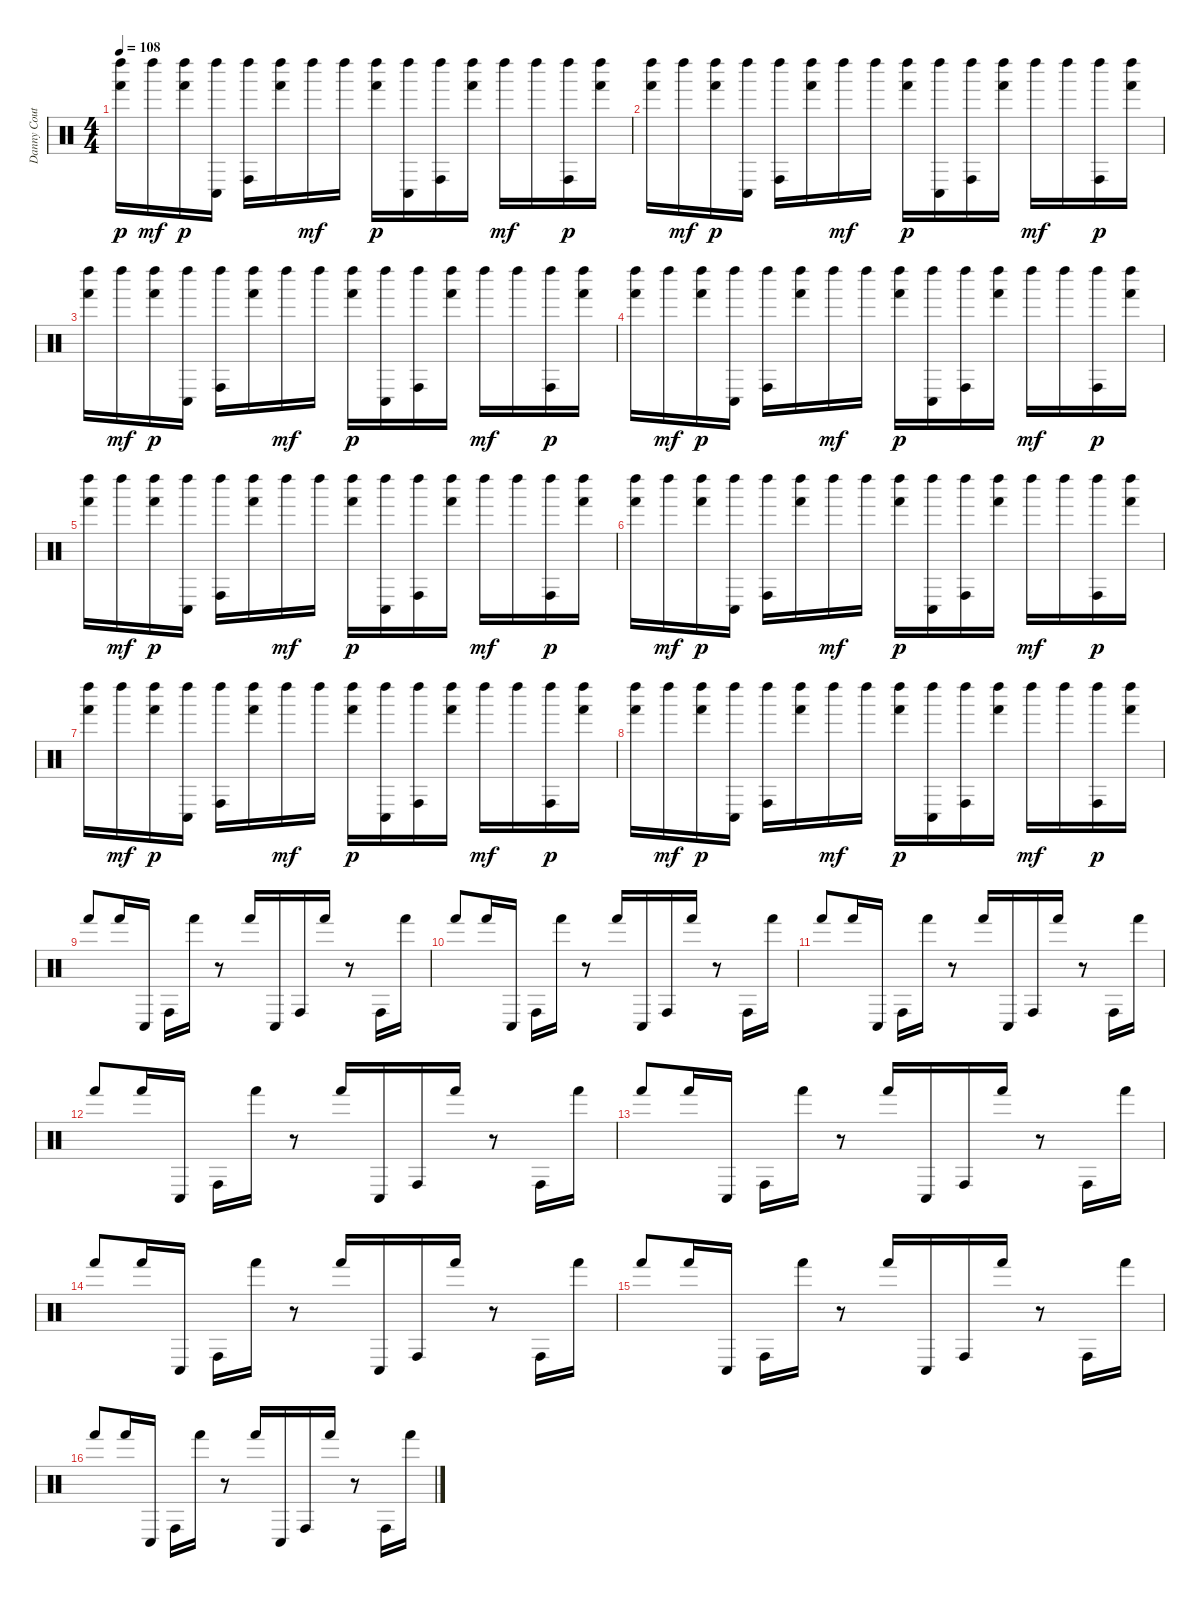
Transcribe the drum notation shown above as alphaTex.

\track ("Danny Couto [Percussion]" "Danny Cout") {instrument percussion}
\staff {score}
\articulation defaults
\ts (4 4)
\tempo 108
\clef neutral
\ks c
("Left Maraca (hit)" "Hand (hit)").16{dy p} "Left Maraca (hit)".16{dy mf} ("Left Maraca (hit)" "Hand (hit)").16{dy p} ("Left Maraca (hit)" "Conga low (hit)").16 ("Left Maraca (hit)" "Conga high (hit)").16 ("Left Maraca (hit)" "Hand (hit)").16 "Left Maraca (hit)".16{dy mf} "Left Maraca (hit)".16 ("Left Maraca (hit)" "Hand (hit)").16{dy p} ("Left Maraca (hit)" "Conga low (hit)").16 ("Left Maraca (hit)" "Conga high (hit)").16 ("Left Maraca (hit)" "Hand (hit)").16 "Left Maraca (hit)".16{dy mf} "Left Maraca (hit)".16 ("Left Maraca (hit)" "Conga high (hit)").16{dy p} ("Left Maraca (hit)" "Hand (hit)").16 |
("Left Maraca (hit)" "Hand (hit)").16 "Left Maraca (hit)".16{dy mf} ("Left Maraca (hit)" "Hand (hit)").16{dy p} ("Left Maraca (hit)" "Conga low (hit)").16 ("Left Maraca (hit)" "Conga high (hit)").16 ("Left Maraca (hit)" "Hand (hit)").16 "Left Maraca (hit)".16{dy mf} "Left Maraca (hit)".16 ("Left Maraca (hit)" "Hand (hit)").16{dy p} ("Left Maraca (hit)" "Conga low (hit)").16 ("Left Maraca (hit)" "Conga high (hit)").16 ("Left Maraca (hit)" "Hand (hit)").16 "Left Maraca (hit)".16{dy mf} "Left Maraca (hit)".16 ("Left Maraca (hit)" "Conga high (hit)").16{dy p} ("Left Maraca (hit)" "Hand (hit)").16 |
("Left Maraca (hit)" "Hand (hit)").16 "Left Maraca (hit)".16{dy mf} ("Left Maraca (hit)" "Hand (hit)").16{dy p} ("Left Maraca (hit)" "Conga low (hit)").16 ("Left Maraca (hit)" "Conga high (hit)").16 ("Left Maraca (hit)" "Hand (hit)").16 "Left Maraca (hit)".16{dy mf} "Left Maraca (hit)".16 ("Left Maraca (hit)" "Hand (hit)").16{dy p} ("Left Maraca (hit)" "Conga low (hit)").16 ("Left Maraca (hit)" "Conga high (hit)").16 ("Left Maraca (hit)" "Hand (hit)").16 "Left Maraca (hit)".16{dy mf} "Left Maraca (hit)".16 ("Left Maraca (hit)" "Conga high (hit)").16{dy p} ("Left Maraca (hit)" "Hand (hit)").16 |
("Left Maraca (hit)" "Hand (hit)").16 "Left Maraca (hit)".16{dy mf} ("Left Maraca (hit)" "Hand (hit)").16{dy p} ("Left Maraca (hit)" "Conga low (hit)").16 ("Left Maraca (hit)" "Conga high (hit)").16 ("Left Maraca (hit)" "Hand (hit)").16 "Left Maraca (hit)".16{dy mf} "Left Maraca (hit)".16 ("Left Maraca (hit)" "Hand (hit)").16{dy p} ("Left Maraca (hit)" "Conga low (hit)").16 ("Left Maraca (hit)" "Conga high (hit)").16 ("Left Maraca (hit)" "Hand (hit)").16 "Left Maraca (hit)".16{dy mf} "Left Maraca (hit)".16 ("Left Maraca (hit)" "Conga high (hit)").16{dy p} ("Left Maraca (hit)" "Hand (hit)").16 |
("Left Maraca (hit)" "Hand (hit)").16 "Left Maraca (hit)".16{dy mf} ("Left Maraca (hit)" "Hand (hit)").16{dy p} ("Left Maraca (hit)" "Conga low (hit)").16 ("Left Maraca (hit)" "Conga high (hit)").16 ("Left Maraca (hit)" "Hand (hit)").16 "Left Maraca (hit)".16{dy mf} "Left Maraca (hit)".16 ("Left Maraca (hit)" "Hand (hit)").16{dy p} ("Left Maraca (hit)" "Conga low (hit)").16 ("Left Maraca (hit)" "Conga high (hit)").16 ("Left Maraca (hit)" "Hand (hit)").16 "Left Maraca (hit)".16{dy mf} "Left Maraca (hit)".16 ("Left Maraca (hit)" "Conga high (hit)").16{dy p} ("Left Maraca (hit)" "Hand (hit)").16 |
("Left Maraca (hit)" "Hand (hit)").16 "Left Maraca (hit)".16{dy mf} ("Left Maraca (hit)" "Hand (hit)").16{dy p} ("Left Maraca (hit)" "Conga low (hit)").16 ("Left Maraca (hit)" "Conga high (hit)").16 ("Left Maraca (hit)" "Hand (hit)").16 "Left Maraca (hit)".16{dy mf} "Left Maraca (hit)".16 ("Left Maraca (hit)" "Hand (hit)").16{dy p} ("Left Maraca (hit)" "Conga low (hit)").16 ("Left Maraca (hit)" "Conga high (hit)").16 ("Left Maraca (hit)" "Hand (hit)").16 "Left Maraca (hit)".16{dy mf} "Left Maraca (hit)".16 ("Left Maraca (hit)" "Conga high (hit)").16{dy p} ("Left Maraca (hit)" "Hand (hit)").16 |
("Left Maraca (hit)" "Hand (hit)").16 "Left Maraca (hit)".16{dy mf} ("Left Maraca (hit)" "Hand (hit)").16{dy p} ("Left Maraca (hit)" "Conga low (hit)").16 ("Left Maraca (hit)" "Conga high (hit)").16 ("Left Maraca (hit)" "Hand (hit)").16 "Left Maraca (hit)".16{dy mf} "Left Maraca (hit)".16 ("Left Maraca (hit)" "Hand (hit)").16{dy p} ("Left Maraca (hit)" "Conga low (hit)").16 ("Left Maraca (hit)" "Conga high (hit)").16 ("Left Maraca (hit)" "Hand (hit)").16 "Left Maraca (hit)".16{dy mf} "Left Maraca (hit)".16 ("Left Maraca (hit)" "Conga high (hit)").16{dy p} ("Left Maraca (hit)" "Hand (hit)").16 |
("Left Maraca (hit)" "Hand (hit)").16 "Left Maraca (hit)".16{dy mf} ("Left Maraca (hit)" "Hand (hit)").16{dy p} ("Left Maraca (hit)" "Conga low (hit)").16 ("Left Maraca (hit)" "Conga high (hit)").16 ("Left Maraca (hit)" "Hand (hit)").16 "Left Maraca (hit)".16{dy mf} "Left Maraca (hit)".16 ("Left Maraca (hit)" "Hand (hit)").16{dy p} ("Left Maraca (hit)" "Conga low (hit)").16 ("Left Maraca (hit)" "Conga high (hit)").16 ("Left Maraca (hit)" "Hand (hit)").16 "Left Maraca (hit)".16{dy mf} "Left Maraca (hit)".16 ("Left Maraca (hit)" "Conga high (hit)").16{dy p} ("Left Maraca (hit)" "Hand (hit)").16 |
"Hand (hit)".8 "Hand (hit)".16 "Conga low (hit)".16 "Conga high (hit)".16 "Hand (hit)".16 r.8 "Hand (hit)".16 "Conga low (hit)".16 "Conga high (hit)".16 "Hand (hit)".16 r.8 "Conga high (hit)".16 "Hand (hit)".16 |
"Hand (hit)".8 "Hand (hit)".16 "Conga low (hit)".16 "Conga high (hit)".16 "Hand (hit)".16 r.8 "Hand (hit)".16 "Conga low (hit)".16 "Conga high (hit)".16 "Hand (hit)".16 r.8 "Conga high (hit)".16 "Hand (hit)".16 |
"Hand (hit)".8 "Hand (hit)".16 "Conga low (hit)".16 "Conga high (hit)".16 "Hand (hit)".16 r.8 "Hand (hit)".16 "Conga low (hit)".16 "Conga high (hit)".16 "Hand (hit)".16 r.8 "Conga high (hit)".16 "Hand (hit)".16 |
"Hand (hit)".8 "Hand (hit)".16 "Conga low (hit)".16 "Conga high (hit)".16 "Hand (hit)".16 r.8 "Hand (hit)".16 "Conga low (hit)".16 "Conga high (hit)".16 "Hand (hit)".16 r.8 "Conga high (hit)".16 "Hand (hit)".16 |
"Hand (hit)".8 "Hand (hit)".16 "Conga low (hit)".16 "Conga high (hit)".16 "Hand (hit)".16 r.8 "Hand (hit)".16 "Conga low (hit)".16 "Conga high (hit)".16 "Hand (hit)".16 r.8 "Conga high (hit)".16 "Hand (hit)".16 |
"Hand (hit)".8 "Hand (hit)".16 "Conga low (hit)".16 "Conga high (hit)".16 "Hand (hit)".16 r.8 "Hand (hit)".16 "Conga low (hit)".16 "Conga high (hit)".16 "Hand (hit)".16 r.8 "Conga high (hit)".16 "Hand (hit)".16 |
"Hand (hit)".8 "Hand (hit)".16 "Conga low (hit)".16 "Conga high (hit)".16 "Hand (hit)".16 r.8 "Hand (hit)".16 "Conga low (hit)".16 "Conga high (hit)".16 "Hand (hit)".16 r.8 "Conga high (hit)".16 "Hand (hit)".16 |
"Hand (hit)".8 "Hand (hit)".16 "Conga low (hit)".16 "Conga high (hit)".16 "Hand (hit)".16 r.8 "Hand (hit)".16 "Conga low (hit)".16 "Conga high (hit)".16 "Hand (hit)".16 r.8 "Conga high (hit)".16 "Hand (hit)".16
